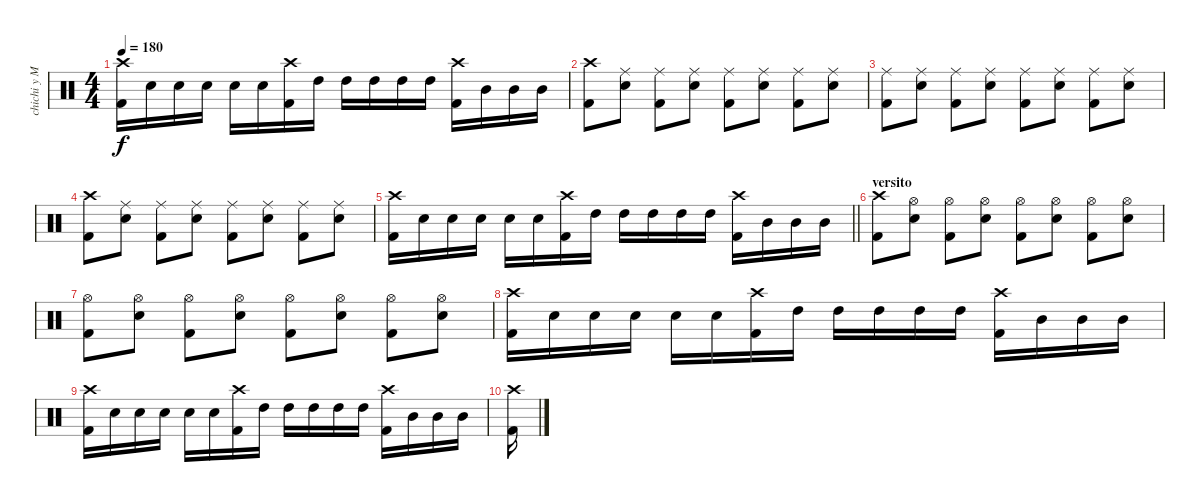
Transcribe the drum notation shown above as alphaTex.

\track ("chichi y MAlejo" "chichi y M") {instrument percussion}
\staff {score}
\articulation defaults
\ts (4 4)
\tempo 180
\clef neutral
\ks c
("Crash high (hit)" "Kick (hit) 2").16{dy f} "Snare (hit) 2".16 "Snare (hit) 2".16 "Snare (hit) 2".16 "Snare (hit) 2".16 "Snare (hit) 2".16 ("Crash high (hit)" "Kick (hit) 2").16 "High Tom (hit)".16 "High Tom (hit)".16 "High Tom (hit)".16 "High Tom (hit)".16 "High Tom (hit)".16 ("Crash high (hit)" "Kick (hit) 2").16 "Mid Tom (hit)".16 "Mid Tom (hit)".16 "Mid Tom (hit)".16 |
("Crash high (hit)" "Kick (hit) 2").8 ("Ride (middle)" "Snare (hit) 2").8 ("Ride (middle)" "Kick (hit) 2").8 ("Ride (middle)" "Snare (hit) 2").8 ("Ride (middle)" "Kick (hit) 2").8 ("Ride (middle)" "Snare (hit) 2").8 ("Ride (middle)" "Kick (hit) 2").8 ("Ride (middle)" "Snare (hit) 2").8 |
("Ride (middle)" "Kick (hit) 2").8 ("Ride (middle)" "Snare (hit) 2").8 ("Ride (middle)" "Kick (hit) 2").8 ("Ride (middle)" "Snare (hit) 2").8 ("Ride (middle)" "Kick (hit) 2").8 ("Ride (middle)" "Snare (hit) 2").8 ("Ride (middle)" "Kick (hit) 2").8 ("Ride (middle)" "Snare (hit) 2").8 |
("Crash high (hit)" "Kick (hit) 2").8 ("Ride (middle)" "Snare (hit) 2").8 ("Ride (middle)" "Kick (hit) 2").8 ("Ride (middle)" "Snare (hit) 2").8 ("Ride (middle)" "Kick (hit) 2").8 ("Ride (middle)" "Snare (hit) 2").8 ("Ride (middle)" "Kick (hit) 2").8 ("Ride (middle)" "Snare (hit) 2").8 |
\barLineRight lightlight
("Crash high (hit)" "Kick (hit) 2").16 "Snare (hit) 2".16 "Snare (hit) 2".16 "Snare (hit) 2".16 "Snare (hit) 2".16 "Snare (hit) 2".16 ("Crash high (hit)" "Kick (hit) 2").16 "High Tom (hit)".16 "High Tom (hit)".16 "High Tom (hit)".16 "High Tom (hit)".16 "High Tom (hit)".16 ("Crash high (hit)" "Kick (hit) 2").16 "Mid Tom (hit)".16 "Mid Tom (hit)".16 "Mid Tom (hit)".16 |
\section ("" "versito")
("Crash high (hit)" "Kick (hit) 2").8 ("Hi-Hat (open)" "Snare (hit) 2").8 ("Hi-Hat (open)" "Kick (hit) 2").8 ("Hi-Hat (open)" "Snare (hit) 2").8 ("Hi-Hat (open)" "Kick (hit) 2").8 ("Hi-Hat (open)" "Snare (hit) 2").8 ("Hi-Hat (open)" "Kick (hit) 2").8 ("Hi-Hat (open)" "Snare (hit) 2").8 |
("Hi-Hat (open)" "Kick (hit) 2").8 ("Hi-Hat (open)" "Snare (hit) 2").8 ("Hi-Hat (open)" "Kick (hit) 2").8 ("Hi-Hat (open)" "Snare (hit) 2").8 ("Hi-Hat (open)" "Kick (hit) 2").8 ("Hi-Hat (open)" "Snare (hit) 2").8 ("Hi-Hat (open)" "Kick (hit) 2").8 ("Hi-Hat (open)" "Snare (hit) 2").8 |
("Crash high (hit)" "Kick (hit) 2").16 "Snare (hit) 2".16 "Snare (hit) 2".16 "Snare (hit) 2".16 "Snare (hit) 2".16 "Snare (hit) 2".16 ("Crash high (hit)" "Kick (hit) 2").16 "High Tom (hit)".16 "High Tom (hit)".16 "High Tom (hit)".16 "High Tom (hit)".16 "High Tom (hit)".16 ("Crash high (hit)" "Kick (hit) 2").16 "Mid Tom (hit)".16 "Mid Tom (hit)".16 "Mid Tom (hit)".16 |
("Crash high (hit)" "Kick (hit) 2").16 "Snare (hit) 2".16 "Snare (hit) 2".16 "Snare (hit) 2".16 "Snare (hit) 2".16 "Snare (hit) 2".16 ("Crash high (hit)" "Kick (hit) 2").16 "High Tom (hit)".16 "High Tom (hit)".16 "High Tom (hit)".16 "High Tom (hit)".16 "High Tom (hit)".16 ("Crash high (hit)" "Kick (hit) 2").16 "Mid Tom (hit)".16 "Mid Tom (hit)".16 "Mid Tom (hit)".16 |
("Crash high (hit)" "Kick (hit) 2").16
